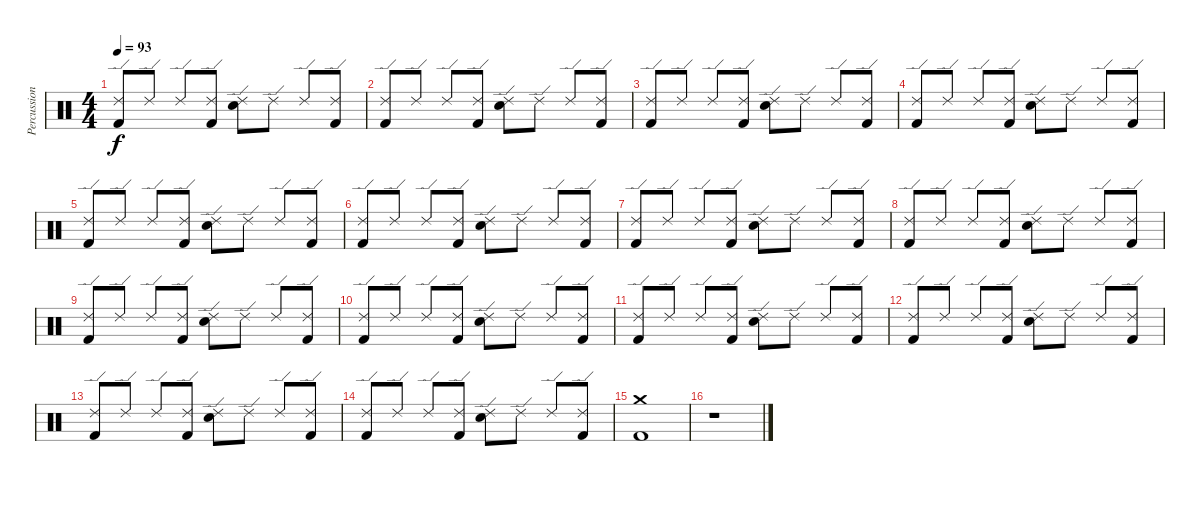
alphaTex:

\track ("Percussion" "Percussion") {instrument percussion}
\staff {score}
\articulation defaults
\ts (4 4)
\tempo 93
\clef neutral
\ks c
("Ride (edge) 2" "Kick (hit) 2").8{dy f} "Ride (edge) 2".8 "Ride (edge) 2".8 ("Ride (edge) 2" "Kick (hit) 2").8 ("Ride (edge) 2" "Snare (hit) 2").8 "Ride (edge) 2".8 "Ride (edge) 2".8 ("Ride (edge) 2" "Kick (hit) 2").8 |
("Ride (edge) 2" "Kick (hit) 2").8 "Ride (edge) 2".8 "Ride (edge) 2".8 ("Ride (edge) 2" "Kick (hit) 2").8 ("Ride (edge) 2" "Snare (hit) 2").8 "Ride (edge) 2".8 "Ride (edge) 2".8 ("Ride (edge) 2" "Kick (hit) 2").8 |
("Ride (edge) 2" "Kick (hit) 2").8 "Ride (edge) 2".8 "Ride (edge) 2".8 ("Ride (edge) 2" "Kick (hit) 2").8 ("Ride (edge) 2" "Snare (hit) 2").8 "Ride (edge) 2".8 "Ride (edge) 2".8 ("Ride (edge) 2" "Kick (hit) 2").8 |
("Ride (edge) 2" "Kick (hit) 2").8 "Ride (edge) 2".8 "Ride (edge) 2".8 ("Ride (edge) 2" "Kick (hit) 2").8 ("Ride (edge) 2" "Snare (hit) 2").8 "Ride (edge) 2".8 "Ride (edge) 2".8 ("Ride (edge) 2" "Kick (hit) 2").8 |
("Ride (edge) 2" "Kick (hit) 2").8 "Ride (edge) 2".8 "Ride (edge) 2".8 ("Ride (edge) 2" "Kick (hit) 2").8 ("Ride (edge) 2" "Snare (hit) 2").8 "Ride (edge) 2".8 "Ride (edge) 2".8 ("Ride (edge) 2" "Kick (hit) 2").8 |
("Ride (edge) 2" "Kick (hit) 2").8 "Ride (edge) 2".8 "Ride (edge) 2".8 ("Ride (edge) 2" "Kick (hit) 2").8 ("Ride (edge) 2" "Snare (hit) 2").8 "Ride (edge) 2".8 "Ride (edge) 2".8 ("Ride (edge) 2" "Kick (hit) 2").8 |
("Ride (edge) 2" "Kick (hit) 2").8 "Ride (edge) 2".8 "Ride (edge) 2".8 ("Ride (edge) 2" "Kick (hit) 2").8 ("Ride (edge) 2" "Snare (hit) 2").8 "Ride (edge) 2".8 "Ride (edge) 2".8 ("Ride (edge) 2" "Kick (hit) 2").8 |
("Ride (edge) 2" "Kick (hit) 2").8 "Ride (edge) 2".8 "Ride (edge) 2".8 ("Ride (edge) 2" "Kick (hit) 2").8 ("Ride (edge) 2" "Snare (hit) 2").8 "Ride (edge) 2".8 "Ride (edge) 2".8 ("Ride (edge) 2" "Kick (hit) 2").8 |
("Ride (edge) 2" "Kick (hit) 2").8 "Ride (edge) 2".8 "Ride (edge) 2".8 ("Ride (edge) 2" "Kick (hit) 2").8 ("Ride (edge) 2" "Snare (hit) 2").8 "Ride (edge) 2".8 "Ride (edge) 2".8 ("Ride (edge) 2" "Kick (hit) 2").8 |
("Ride (edge) 2" "Kick (hit) 2").8 "Ride (edge) 2".8 "Ride (edge) 2".8 ("Ride (edge) 2" "Kick (hit) 2").8 ("Ride (edge) 2" "Snare (hit) 2").8 "Ride (edge) 2".8 "Ride (edge) 2".8 ("Ride (edge) 2" "Kick (hit) 2").8 |
("Ride (edge) 2" "Kick (hit) 2").8 "Ride (edge) 2".8 "Ride (edge) 2".8 ("Ride (edge) 2" "Kick (hit) 2").8 ("Ride (edge) 2" "Snare (hit) 2").8 "Ride (edge) 2".8 "Ride (edge) 2".8 ("Ride (edge) 2" "Kick (hit) 2").8 |
("Ride (edge) 2" "Kick (hit) 2").8 "Ride (edge) 2".8 "Ride (edge) 2".8 ("Ride (edge) 2" "Kick (hit) 2").8 ("Ride (edge) 2" "Snare (hit) 2").8 "Ride (edge) 2".8 "Ride (edge) 2".8 ("Ride (edge) 2" "Kick (hit) 2").8 |
("Ride (edge) 2" "Kick (hit) 2").8 "Ride (edge) 2".8 "Ride (edge) 2".8 ("Ride (edge) 2" "Kick (hit) 2").8 ("Ride (edge) 2" "Snare (hit) 2").8 "Ride (edge) 2".8 "Ride (edge) 2".8 ("Ride (edge) 2" "Kick (hit) 2").8 |
("Ride (edge) 2" "Kick (hit) 2").8 "Ride (edge) 2".8 "Ride (edge) 2".8 ("Ride (edge) 2" "Kick (hit) 2").8 ("Ride (edge) 2" "Snare (hit) 2").8 "Ride (edge) 2".8 "Ride (edge) 2".8 ("Ride (edge) 2" "Kick (hit) 2").8 |
("Crash medium (hit)" "Kick (hit) 2").1 |
r.1
